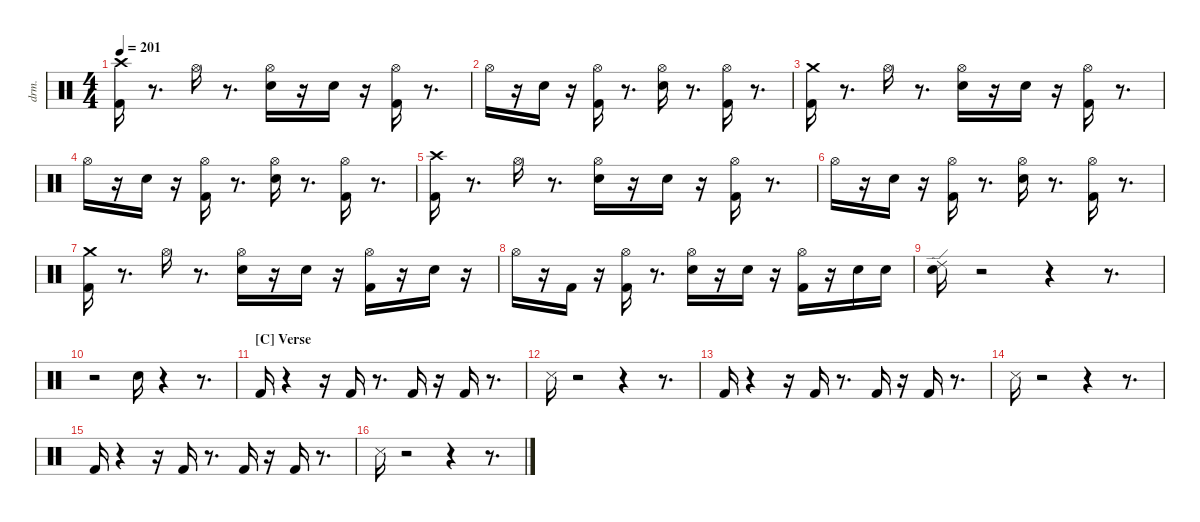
\defaultSystemsLayout 4
\hideDynamics
\bracketExtendMode nobrackets
\otherSystemsTrackNameOrientation horizontal
\track ("Drums" "drm.") {instrument percussion}
\staff {score}
\articulation defaults
\ts (4 4)
\tempo 201
\clef neutral
\ks aminor
("Kick (hit) 2" "Crash high (hit)"{acc #}).16{dy ff beam Down} r.8{d beam Down} "Hi-Hat (open)"{acc #}.16{dy f beam Down} r.8{d beam Down} ("Snare (hit) 2" "Hi-Hat (open)"{acc #}).16{dy ff beam Down} r.16{beam Down} "Snare (hit) 2".16{dy mf beam Down} r.16{beam Down} ("Kick (hit) 2" "Hi-Hat (open)"{acc #}).16{dy ff beam Down} r.8{d beam Down} |
"Hi-Hat (open)"{acc #}.16{dy fff beam Down} r.16{beam Down} "Snare (hit) 2".16{dy ppp beam Down} r.16{beam Down} ("Kick (hit) 2" "Hi-Hat (open)"{acc #}).16{dy ff beam Down} r.8{d beam Down} ("Snare (hit) 2" "Hi-Hat (open)"{acc #}).16{beam Down} r.8{d beam Down} ("Kick (hit) 2" "Hi-Hat (open)"{acc #}).16{beam Down} r.8{d beam Down} |
("Kick (hit) 2" "Crash medium (hit)").16{beam Down} r.8{d beam Down} "Hi-Hat (open)"{acc #}.16{dy f beam Down} r.8{d beam Down} ("Snare (hit) 2" "Hi-Hat (open)"{acc #}).16{dy ff beam Down} r.16{beam Down} "Snare (hit) 2".16{dy mf beam Down} r.16{beam Down} ("Kick (hit) 2" "Hi-Hat (open)"{acc #}).16{dy ff beam Down} r.8{d beam Down} |
"Hi-Hat (open)"{acc #}.16{dy fff beam Down} r.16{beam Down} "Snare (hit) 2".16{dy ppp beam Down} r.16{beam Down} ("Kick (hit) 2" "Hi-Hat (open)"{acc #}).16{dy ff beam Down} r.8{d beam Down} ("Snare (hit) 2" "Hi-Hat (open)"{acc #}).16{beam Down} r.8{d beam Down} ("Kick (hit) 2" "Hi-Hat (open)"{acc #}).16{beam Down} r.8{d beam Down} |
("Kick (hit) 2" "Crash high (hit)"{acc #}).16{beam Down} r.8{d beam Down} "Hi-Hat (open)"{acc #}.16{dy f beam Down} r.8{d beam Down} ("Snare (hit) 2" "Hi-Hat (open)"{acc #}).16{dy ff beam Down} r.16{beam Down} "Snare (hit) 2".16{dy mf beam Down} r.16{beam Down} ("Kick (hit) 2" "Hi-Hat (open)"{acc #}).16{dy ff beam Down} r.8{d beam Down} |
"Hi-Hat (open)"{acc #}.16{dy fff beam Down} r.16{beam Down} "Snare (hit) 2".16{dy ppp beam Down} r.16{beam Down} ("Kick (hit) 2" "Hi-Hat (open)"{acc #}).16{dy ff beam Down} r.8{d beam Down} ("Snare (hit) 2" "Hi-Hat (open)"{acc #}).16{beam Down} r.8{d beam Down} ("Kick (hit) 2" "Hi-Hat (open)"{acc #}).16{beam Down} r.8{d beam Down} |
("Kick (hit) 2" "Crash medium (hit)").16{beam Down} r.8{d beam Down} "Hi-Hat (open)"{acc #}.16{dy f beam Down} r.8{d beam Down} ("Snare (hit) 2" "Hi-Hat (open)"{acc #}).16{dy ff beam Down} r.16{beam Down} "Snare (hit) 2".16{dy mf beam Down} r.16{beam Down} ("Kick (hit) 2" "Hi-Hat (open)"{acc #}).16{dy ff beam Down} r.16{beam Down} "Snare (hit) 2".16{beam Down} r.16{beam Down} |
"Hi-Hat (open)"{acc #}.16{dy fff beam Down} r.16{beam Down} "Kick (hit) 2".16{dy mf beam Down} r.16{beam Down} ("Kick (hit) 2" "Hi-Hat (open)"{acc #}).16{dy ff beam Down} r.8{d beam Down} ("Snare (hit) 2" "Hi-Hat (open)"{acc #}).16{beam Down} r.16{beam Down} "Snare (hit) 2".16{beam Down} r.16{beam Down} ("Kick (hit) 2" "Hi-Hat (open)"{acc #}).16{beam Down} r.16{beam Down} "Snare (hit) 2".16{dy f beam Down} "Snare (hit) 2".16{dy pp beam Down} |
("Snare (hit) 2" "Ride (edge) 2").16{dy ff beam Down} r.2{beam Down} r.4{beam Down} r.8{d beam Down} |
r.2{beam Down} "Snare (hit) 2".16{beam Down} r.4{beam Down} r.8{d beam Down} |
\section ("C" "Verse")
"Kick (hit) 2".16{beam Up} r.4{beam Up} r.16{beam Up} "Kick (hit) 2".16{beam Up} r.8{d beam Up} "Kick (hit) 2".16{beam Up} r.16{beam Up} "Kick (hit) 2".16{beam Up} r.8{d beam Up} |
"Snare (side stick) 3"{acc #}.16{dy fff beam Down} r.2{beam Down} r.4{beam Down} r.8{d beam Down} |
"Kick (hit) 2".16{dy ff beam Up} r.4{beam Up} r.16{beam Up} "Kick (hit) 2".16{beam Up} r.8{d beam Up} "Kick (hit) 2".16{beam Up} r.16{beam Up} "Kick (hit) 2".16{beam Up} r.8{d beam Up} |
"Snare (side stick) 3"{acc #}.16{dy fff beam Down} r.2{beam Down} r.4{beam Down} r.8{d beam Down} |
"Kick (hit) 2".16{dy ff beam Up} r.4{beam Up} r.16{beam Up} "Kick (hit) 2".16{beam Up} r.8{d beam Up} "Kick (hit) 2".16{beam Up} r.16{beam Up} "Kick (hit) 2".16{beam Up} r.8{d beam Up} |
"Snare (side stick) 3"{acc #}.16{dy fff beam Down} r.2{beam Down} r.4{beam Down} r.8{d beam Down}
